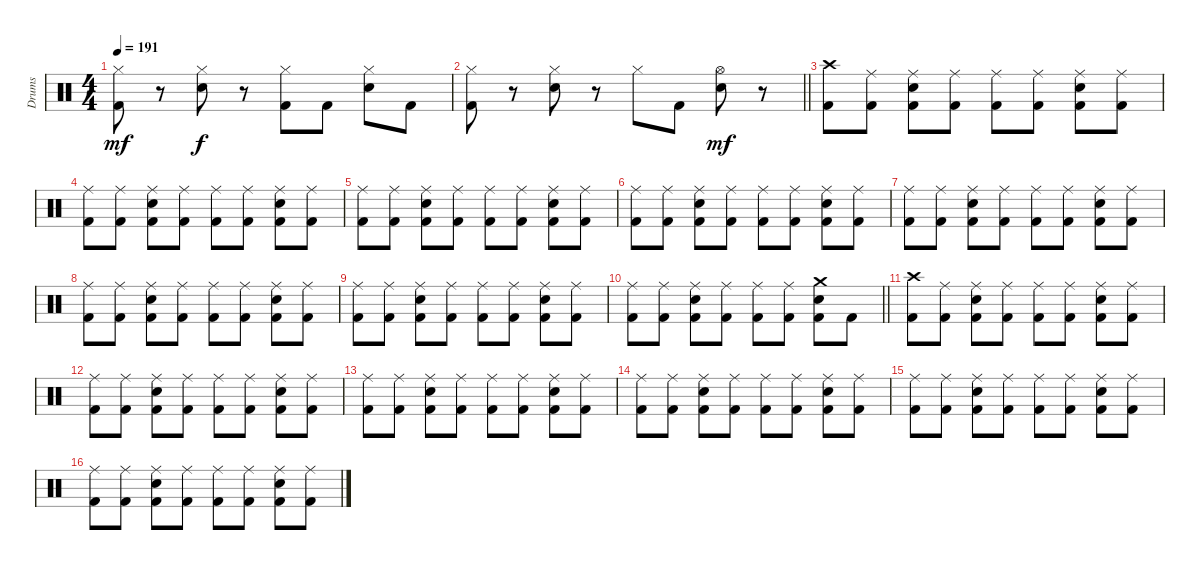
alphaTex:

\track ("Drums" "Drums") {instrument percussion}
\staff {score}
\articulation defaults
\ts (4 4)
\tempo 191
\clef neutral
\ks c
("Hi-Hat (closed)" "Kick (hit) 2").8{dy mf} r.8 ("Hi-Hat (closed)" "Snare (hit) 2").8{dy f} r.8 ("Hi-Hat (closed)" "Kick (hit) 2").8 "Kick (hit) 2".8 ("Hi-Hat (closed)" "Snare (hit) 2").8 "Kick (hit) 2".8 |
\barLineRight lightlight
("Hi-Hat (closed)" "Kick (hit) 2").8 r.8 ("Hi-Hat (closed)" "Snare (hit) 2").8 r.8 "Hi-Hat (closed)".8 "Kick (hit) 2".8 ("Hi-Hat (open)" "Snare (hit) 2").8{dy mf} r.8 |
\section ("" "")
("Crash high (hit)" "Kick (hit) 2").8 ("Ride (middle)" "Kick (hit) 2").8 ("Ride (middle)" "Snare (hit) 2" "Kick (hit) 2").8 ("Ride (middle)" "Kick (hit) 2").8 ("Ride (middle)" "Kick (hit) 2").8 ("Ride (middle)" "Kick (hit) 2").8 ("Ride (middle)" "Snare (hit) 2" "Kick (hit) 2").8 ("Ride (middle)" "Kick (hit) 2").8 |
("Ride (middle)" "Kick (hit) 2").8 ("Ride (middle)" "Kick (hit) 2").8 ("Ride (middle)" "Snare (hit) 2" "Kick (hit) 2").8 ("Ride (middle)" "Kick (hit) 2").8 ("Ride (middle)" "Kick (hit) 2").8 ("Ride (middle)" "Kick (hit) 2").8 ("Ride (middle)" "Snare (hit) 2" "Kick (hit) 2").8 ("Ride (middle)" "Kick (hit) 2").8 |
("Ride (middle)" "Kick (hit) 2").8 ("Ride (middle)" "Kick (hit) 2").8 ("Ride (middle)" "Snare (hit) 2" "Kick (hit) 2").8 ("Ride (middle)" "Kick (hit) 2").8 ("Ride (middle)" "Kick (hit) 2").8 ("Ride (middle)" "Kick (hit) 2").8 ("Ride (middle)" "Snare (hit) 2" "Kick (hit) 2").8 ("Ride (middle)" "Kick (hit) 2").8 |
("Ride (middle)" "Kick (hit) 2").8 ("Ride (middle)" "Kick (hit) 2").8 ("Ride (middle)" "Snare (hit) 2" "Kick (hit) 2").8 ("Ride (middle)" "Kick (hit) 2").8 ("Ride (middle)" "Kick (hit) 2").8 ("Ride (middle)" "Kick (hit) 2").8 ("Ride (middle)" "Snare (hit) 2" "Kick (hit) 2").8 ("Ride (middle)" "Kick (hit) 2").8 |
("Ride (middle)" "Kick (hit) 2").8 ("Ride (middle)" "Kick (hit) 2").8 ("Ride (middle)" "Snare (hit) 2" "Kick (hit) 2").8 ("Ride (middle)" "Kick (hit) 2").8 ("Ride (middle)" "Kick (hit) 2").8 ("Ride (middle)" "Kick (hit) 2").8 ("Ride (middle)" "Snare (hit) 2" "Kick (hit) 2").8 ("Ride (middle)" "Kick (hit) 2").8 |
("Ride (middle)" "Kick (hit) 2").8 ("Ride (middle)" "Kick (hit) 2").8 ("Ride (middle)" "Snare (hit) 2" "Kick (hit) 2").8 ("Ride (middle)" "Kick (hit) 2").8 ("Ride (middle)" "Kick (hit) 2").8 ("Ride (middle)" "Kick (hit) 2").8 ("Ride (middle)" "Snare (hit) 2" "Kick (hit) 2").8 ("Ride (middle)" "Kick (hit) 2").8 |
("Ride (middle)" "Kick (hit) 2").8 ("Ride (middle)" "Kick (hit) 2").8 ("Ride (middle)" "Snare (hit) 2" "Kick (hit) 2").8 ("Ride (middle)" "Kick (hit) 2").8 ("Ride (middle)" "Kick (hit) 2").8 ("Ride (middle)" "Kick (hit) 2").8 ("Ride (middle)" "Snare (hit) 2" "Kick (hit) 2").8 ("Ride (middle)" "Kick (hit) 2").8 |
\barLineRight lightlight
("Ride (middle)" "Kick (hit) 2").8 ("Ride (middle)" "Kick (hit) 2").8 ("Ride (middle)" "Snare (hit) 2" "Kick (hit) 2").8 ("Ride (middle)" "Kick (hit) 2").8 ("Ride (middle)" "Kick (hit) 2").8 ("Ride (middle)" "Kick (hit) 2").8 ("Crash medium (hit)" "Snare (hit) 2" "Kick (hit) 2").8 "Kick (hit) 2".8 |
\section ("" "")
("Crash high (hit)" "Kick (hit) 2").8 ("Ride (middle)" "Kick (hit) 2").8 ("Ride (middle)" "Snare (hit) 2" "Kick (hit) 2").8 ("Ride (middle)" "Kick (hit) 2").8 ("Ride (middle)" "Kick (hit) 2").8 ("Ride (middle)" "Kick (hit) 2").8 ("Ride (middle)" "Snare (hit) 2" "Kick (hit) 2").8 ("Ride (middle)" "Kick (hit) 2").8 |
("Ride (middle)" "Kick (hit) 2").8 ("Ride (middle)" "Kick (hit) 2").8 ("Ride (middle)" "Snare (hit) 2" "Kick (hit) 2").8 ("Ride (middle)" "Kick (hit) 2").8 ("Ride (middle)" "Kick (hit) 2").8 ("Ride (middle)" "Kick (hit) 2").8 ("Ride (middle)" "Snare (hit) 2" "Kick (hit) 2").8 ("Ride (middle)" "Kick (hit) 2").8 |
("Ride (middle)" "Kick (hit) 2").8 ("Ride (middle)" "Kick (hit) 2").8 ("Ride (middle)" "Snare (hit) 2" "Kick (hit) 2").8 ("Ride (middle)" "Kick (hit) 2").8 ("Ride (middle)" "Kick (hit) 2").8 ("Ride (middle)" "Kick (hit) 2").8 ("Ride (middle)" "Snare (hit) 2" "Kick (hit) 2").8 ("Ride (middle)" "Kick (hit) 2").8 |
("Ride (middle)" "Kick (hit) 2").8 ("Ride (middle)" "Kick (hit) 2").8 ("Ride (middle)" "Snare (hit) 2" "Kick (hit) 2").8 ("Ride (middle)" "Kick (hit) 2").8 ("Ride (middle)" "Kick (hit) 2").8 ("Ride (middle)" "Kick (hit) 2").8 ("Ride (middle)" "Snare (hit) 2" "Kick (hit) 2").8 ("Ride (middle)" "Kick (hit) 2").8 |
("Ride (middle)" "Kick (hit) 2").8 ("Ride (middle)" "Kick (hit) 2").8 ("Ride (middle)" "Snare (hit) 2" "Kick (hit) 2").8 ("Ride (middle)" "Kick (hit) 2").8 ("Ride (middle)" "Kick (hit) 2").8 ("Ride (middle)" "Kick (hit) 2").8 ("Ride (middle)" "Snare (hit) 2" "Kick (hit) 2").8 ("Ride (middle)" "Kick (hit) 2").8 |
("Ride (middle)" "Kick (hit) 2").8 ("Ride (middle)" "Kick (hit) 2").8 ("Ride (middle)" "Snare (hit) 2" "Kick (hit) 2").8 ("Ride (middle)" "Kick (hit) 2").8 ("Ride (middle)" "Kick (hit) 2").8 ("Ride (middle)" "Kick (hit) 2").8 ("Ride (middle)" "Snare (hit) 2" "Kick (hit) 2").8 ("Ride (middle)" "Kick (hit) 2").8
